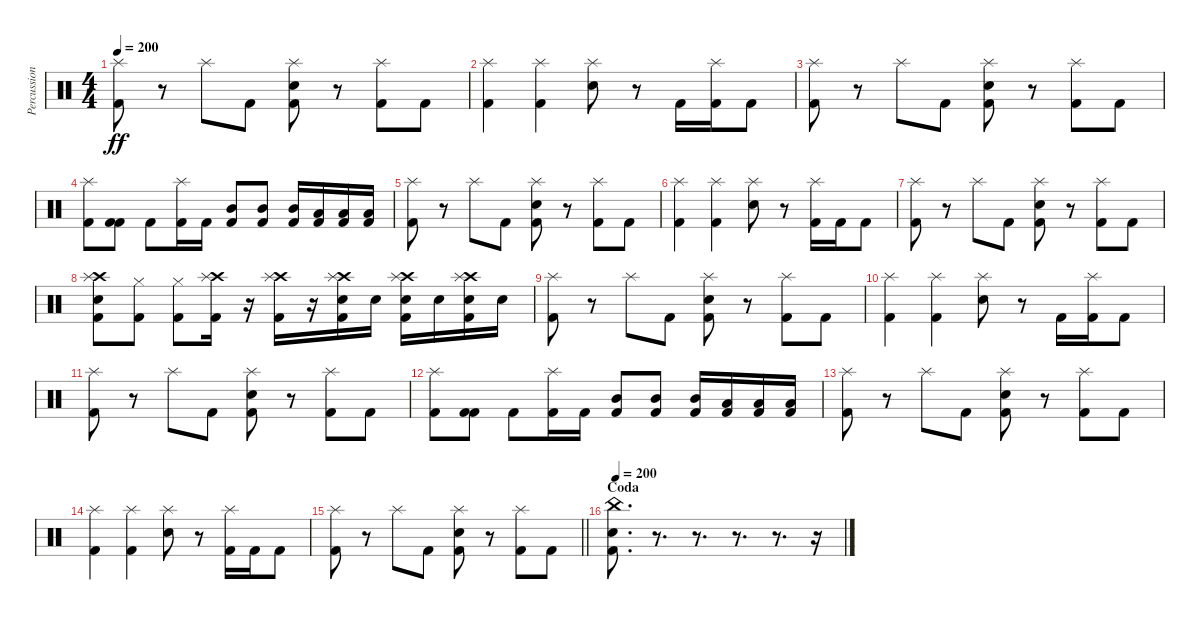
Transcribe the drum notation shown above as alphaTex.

\track ("Percussion" "Percussion") {instrument percussion}
\staff {score}
\articulation defaults
\ts (4 4)
\tempo 200
\clef neutral
\ks c
("Splash (hit)" "Kick (hit) 2").8{dy ff} r.8 "Splash (hit)".8 "Kick (hit) 2".8 ("Splash (hit)" "Electric Snare (hit)" "Kick (hit) 2").8 r.8 ("Splash (hit)" "Kick (hit) 2").8 "Kick (hit) 2".8 |
("Splash (hit)" "Kick (hit) 2").4 ("Splash (hit)" "Kick (hit) 2").4 ("Splash (hit)" "Electric Snare (hit)").8 r.8 "Kick (hit) 2".16 ("Splash (hit)" "Kick (hit) 2").16 "Kick (hit) 2".8 |
("Splash (hit)" "Kick (hit) 2").8 r.8 "Splash (hit)".8 "Kick (hit) 2".8 ("Splash (hit)" "Electric Snare (hit)" "Kick (hit) 2").8 r.8 ("Splash (hit)" "Kick (hit) 2").8 "Kick (hit) 2".8 |
("Splash (hit)" "Kick (hit) 2").8 ("Kick (hit) 2" "Kick (hit) 2").8 "Kick (hit) 2".8 ("Splash (hit)" "Kick (hit) 2").16 "Kick (hit) 2".16 ("Mid Tom (hit)" "Kick (hit) 2").8 ("Mid Tom (hit)" "Kick (hit) 2").8 ("Mid Tom (hit)" "Kick (hit) 2").16 ("Low Tom (hit)" "Kick (hit) 2").16 ("Low Tom (hit)" "Kick (hit) 2").16 ("Low Tom (hit)" "Kick (hit) 2").16 |
("Splash (hit)" "Kick (hit) 2").8 r.8 "Splash (hit)".8 "Kick (hit) 2".8 ("Splash (hit)" "Electric Snare (hit)" "Kick (hit) 2").8 r.8 ("Splash (hit)" "Kick (hit) 2").8 "Kick (hit) 2".8 |
("Splash (hit)" "Kick (hit) 2").4 ("Splash (hit)" "Kick (hit) 2").4 ("Splash (hit)" "Electric Snare (hit)").8 r.8 ("Splash (hit)" "Kick (hit) 2").16 "Kick (hit) 2".16 "Kick (hit) 2".8 |
("Splash (hit)" "Kick (hit) 2").8 r.8 "Splash (hit)".8 "Kick (hit) 2".8 ("Splash (hit)" "Electric Snare (hit)" "Kick (hit) 2").8 r.8 ("Splash (hit)" "Kick (hit) 2").8 "Kick (hit) 2".8 |
("Crash high (hit)" "Splash (hit)" "Electric Snare (hit)" "Kick (hit) 2").8 ("Hi-Hat (closed)" "Kick (hit) 2").8 ("Hi-Hat (closed)" "Kick (hit) 2").8 ("Crash high (hit)" "Splash (hit)" "Kick (hit) 2").16 r.16 ("Crash high (hit)" "Splash (hit)" "Kick (hit) 2").16 r.16 ("Crash high (hit)" "Splash (hit)" "Electric Snare (hit)" "Kick (hit) 2").16 "Electric Snare (hit)".16 ("Crash high (hit)" "Splash (hit)" "Electric Snare (hit)" "Kick (hit) 2").16 "Electric Snare (hit)".16 ("Crash high (hit)" "Splash (hit)" "Electric Snare (hit)" "Kick (hit) 2").16 "Electric Snare (hit)".16 |
("Splash (hit)" "Kick (hit) 2").8 r.8 "Splash (hit)".8 "Kick (hit) 2".8 ("Splash (hit)" "Electric Snare (hit)" "Kick (hit) 2").8 r.8 ("Splash (hit)" "Kick (hit) 2").8 "Kick (hit) 2".8 |
("Splash (hit)" "Kick (hit) 2").4 ("Splash (hit)" "Kick (hit) 2").4 ("Splash (hit)" "Electric Snare (hit)").8 r.8 "Kick (hit) 2".16 ("Splash (hit)" "Kick (hit) 2").16 "Kick (hit) 2".8 |
("Splash (hit)" "Kick (hit) 2").8 r.8 "Splash (hit)".8 "Kick (hit) 2".8 ("Splash (hit)" "Electric Snare (hit)" "Kick (hit) 2").8 r.8 ("Splash (hit)" "Kick (hit) 2").8 "Kick (hit) 2".8 |
("Splash (hit)" "Kick (hit) 2").8 ("Kick (hit) 2" "Kick (hit) 2").8 "Kick (hit) 2".8 ("Splash (hit)" "Kick (hit) 2").16 "Kick (hit) 2".16 ("Mid Tom (hit)" "Kick (hit) 2").8 ("Mid Tom (hit)" "Kick (hit) 2").8 ("Mid Tom (hit)" "Kick (hit) 2").16 ("Low Tom (hit)" "Kick (hit) 2").16 ("Low Tom (hit)" "Kick (hit) 2").16 ("Low Tom (hit)" "Kick (hit) 2").16 |
("Splash (hit)" "Kick (hit) 2").8 r.8 "Splash (hit)".8 "Kick (hit) 2".8 ("Splash (hit)" "Electric Snare (hit)" "Kick (hit) 2").8 r.8 ("Splash (hit)" "Kick (hit) 2").8 "Kick (hit) 2".8 |
("Splash (hit)" "Kick (hit) 2").4 ("Splash (hit)" "Kick (hit) 2").4 ("Splash (hit)" "Electric Snare (hit)").8 r.8 ("Splash (hit)" "Kick (hit) 2").16 "Kick (hit) 2".16 "Kick (hit) 2".8 |
\barLineRight lightlight
("Splash (hit)" "Kick (hit) 2").8 r.8 "Splash (hit)".8 "Kick (hit) 2".8 ("Splash (hit)" "Electric Snare (hit)" "Kick (hit) 2").8 r.8 ("Splash (hit)" "Kick (hit) 2").8 "Kick (hit) 2".8 |
\section ("" "Coda")
\tempo 200
("China (hit)" "Electric Snare (hit)" "Kick (hit) 2").8{d} r.8{d} r.8{d} r.8{d} r.8{d} r.16
